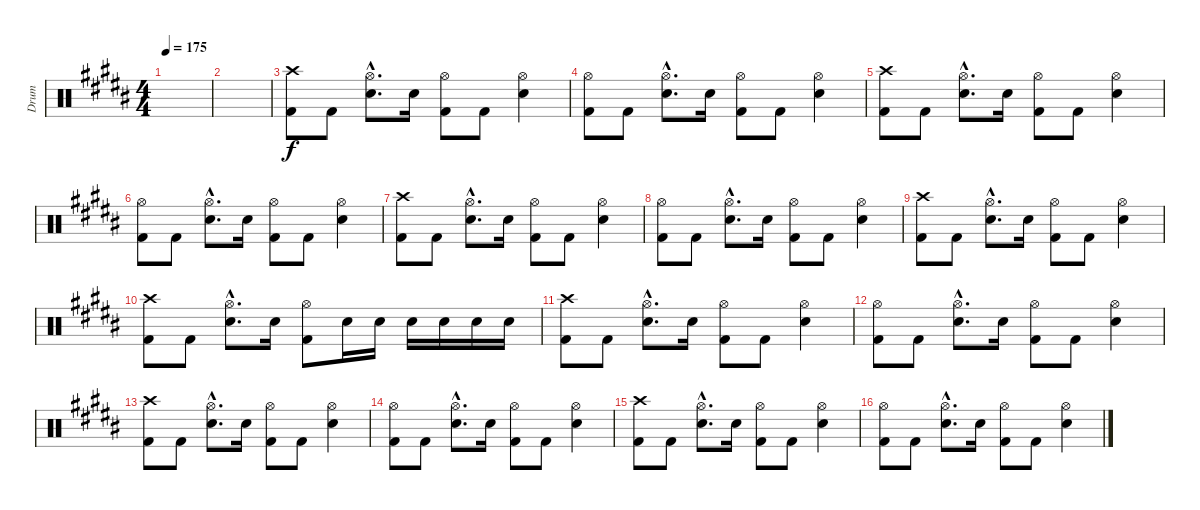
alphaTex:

\track ("Drum" "Drum") {instrument percussion}
\staff {score}
\articulation defaults
\ts (4 4)
\tempo 175
\clef neutral
\ks b
|
|
("Crash high (hit)" "Kick (hit) 2").8 "Kick (hit) 2".8 ("Hi-Hat (open)"{hac} "Snare (hit) 2"{hac}).8{d} "Snare (hit) 2".16 ("Hi-Hat (open)" "Kick (hit) 2").8 "Kick (hit) 2".8 ("Hi-Hat (open)" "Snare (hit) 2").4 |
("Hi-Hat (open)" "Kick (hit) 2").8 "Kick (hit) 2".8 ("Hi-Hat (open)"{hac} "Snare (hit) 2"{hac}).8{d} "Snare (hit) 2".16 ("Hi-Hat (open)" "Kick (hit) 2").8 "Kick (hit) 2".8 ("Hi-Hat (open)" "Snare (hit) 2").4 |
("Crash high (hit)" "Kick (hit) 2").8 "Kick (hit) 2".8 ("Hi-Hat (open)"{hac} "Snare (hit) 2"{hac}).8{d} "Snare (hit) 2".16 ("Hi-Hat (open)" "Kick (hit) 2").8 "Kick (hit) 2".8 ("Hi-Hat (open)" "Snare (hit) 2").4 |
("Hi-Hat (open)" "Kick (hit) 2").8 "Kick (hit) 2".8 ("Hi-Hat (open)"{hac} "Snare (hit) 2"{hac}).8{d} "Snare (hit) 2".16 ("Hi-Hat (open)" "Kick (hit) 2").8 "Kick (hit) 2".8 ("Hi-Hat (open)" "Snare (hit) 2").4 |
("Crash high (hit)" "Kick (hit) 2").8 "Kick (hit) 2".8 ("Hi-Hat (open)"{hac} "Snare (hit) 2"{hac}).8{d} "Snare (hit) 2".16 ("Hi-Hat (open)" "Kick (hit) 2").8 "Kick (hit) 2".8 ("Hi-Hat (open)" "Snare (hit) 2").4 |
("Hi-Hat (open)" "Kick (hit) 2").8 "Kick (hit) 2".8 ("Hi-Hat (open)"{hac} "Snare (hit) 2"{hac}).8{d} "Snare (hit) 2".16 ("Hi-Hat (open)" "Kick (hit) 2").8 "Kick (hit) 2".8 ("Hi-Hat (open)" "Snare (hit) 2").4 |
("Crash high (hit)" "Kick (hit) 2").8 "Kick (hit) 2".8 ("Hi-Hat (open)"{hac} "Snare (hit) 2"{hac}).8{d} "Snare (hit) 2".16 ("Hi-Hat (open)" "Kick (hit) 2").8 "Kick (hit) 2".8 ("Hi-Hat (open)" "Snare (hit) 2").4 |
("Crash high (hit)" "Kick (hit) 2").8 "Kick (hit) 2".8 ("Hi-Hat (open)"{hac} "Snare (hit) 2"{hac}).8{d} "Snare (hit) 2".16 ("Hi-Hat (open)" "Kick (hit) 2").8 "Snare (hit) 2".16 "Snare (hit) 2".16 "Snare (hit) 2".16 "Snare (hit) 2".16 "Snare (hit) 2".16 "Snare (hit) 2".16 |
("Crash high (hit)" "Kick (hit) 2").8 "Kick (hit) 2".8 ("Hi-Hat (open)"{hac} "Snare (hit) 2"{hac}).8{d} "Snare (hit) 2".16 ("Hi-Hat (open)" "Kick (hit) 2").8 "Kick (hit) 2".8 ("Hi-Hat (open)" "Snare (hit) 2").4 |
("Hi-Hat (open)" "Kick (hit) 2").8 "Kick (hit) 2".8 ("Hi-Hat (open)"{hac} "Snare (hit) 2"{hac}).8{d} "Snare (hit) 2".16 ("Hi-Hat (open)" "Kick (hit) 2").8 "Kick (hit) 2".8 ("Hi-Hat (open)" "Snare (hit) 2").4 |
("Crash high (hit)" "Kick (hit) 2").8 "Kick (hit) 2".8 ("Hi-Hat (open)"{hac} "Snare (hit) 2"{hac}).8{d} "Snare (hit) 2".16 ("Hi-Hat (open)" "Kick (hit) 2").8 "Kick (hit) 2".8 ("Hi-Hat (open)" "Snare (hit) 2").4 |
("Hi-Hat (open)" "Kick (hit) 2").8 "Kick (hit) 2".8 ("Hi-Hat (open)"{hac} "Snare (hit) 2"{hac}).8{d} "Snare (hit) 2".16 ("Hi-Hat (open)" "Kick (hit) 2").8 "Kick (hit) 2".8 ("Hi-Hat (open)" "Snare (hit) 2").4 |
("Crash high (hit)" "Kick (hit) 2").8 "Kick (hit) 2".8 ("Hi-Hat (open)"{hac} "Snare (hit) 2"{hac}).8{d} "Snare (hit) 2".16 ("Hi-Hat (open)" "Kick (hit) 2").8 "Kick (hit) 2".8 ("Hi-Hat (open)" "Snare (hit) 2").4 |
("Hi-Hat (open)" "Kick (hit) 2").8 "Kick (hit) 2".8 ("Hi-Hat (open)"{hac} "Snare (hit) 2"{hac}).8{d} "Snare (hit) 2".16 ("Hi-Hat (open)" "Kick (hit) 2").8 "Kick (hit) 2".8 ("Hi-Hat (open)" "Snare (hit) 2").4
